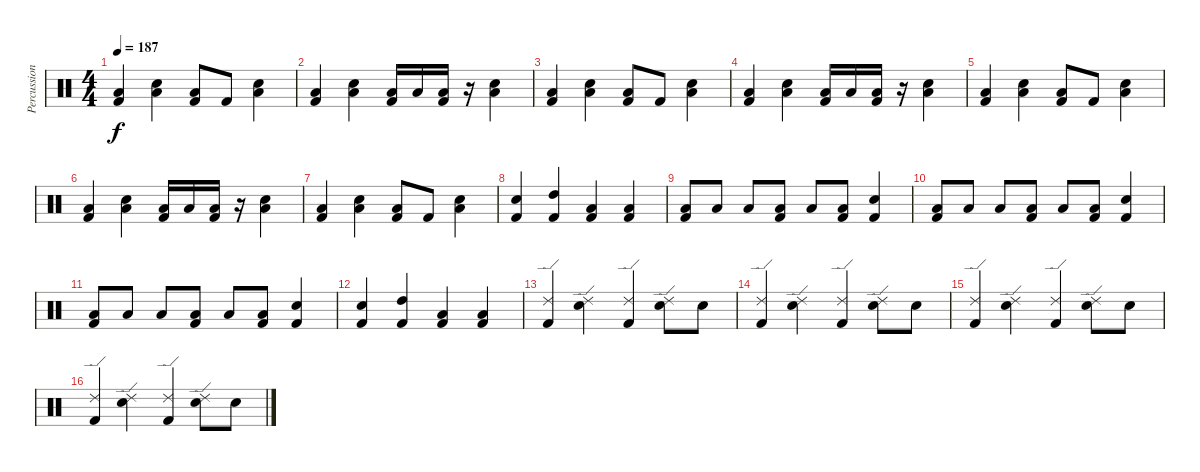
\track ("Percussion" "Percussion") {instrument percussion}
\staff {score}
\articulation defaults
\ts (4 4)
\tempo 187
\clef neutral
\ks c
("Kick (hit) 2" "Low Floor Tom (hit)").4{dy f} ("Snare (hit) 2" "Low Floor Tom (hit)").4 ("Kick (hit) 2" "Low Floor Tom (hit)").8 "Kick (hit) 2".8 ("Snare (hit) 2" "Low Floor Tom (hit)").4 |
("Kick (hit) 2" "Low Floor Tom (hit)").4 ("Snare (hit) 2" "Low Floor Tom (hit)").4 ("Kick (hit) 2" "Low Floor Tom (hit)").16 "Low Floor Tom (hit)".16 ("Kick (hit) 2" "Low Floor Tom (hit)").16 r.16 ("Snare (hit) 2" "Low Floor Tom (hit)").4 |
("Kick (hit) 2" "Low Floor Tom (hit)").4 ("Snare (hit) 2" "Low Floor Tom (hit)").4 ("Kick (hit) 2" "Low Floor Tom (hit)").8 "Kick (hit) 2".8 ("Snare (hit) 2" "Low Floor Tom (hit)").4 |
("Kick (hit) 2" "Low Floor Tom (hit)").4 ("Snare (hit) 2" "Low Floor Tom (hit)").4 ("Kick (hit) 2" "Low Floor Tom (hit)").16 "Low Floor Tom (hit)".16 ("Kick (hit) 2" "Low Floor Tom (hit)").16 r.16 ("Snare (hit) 2" "Low Floor Tom (hit)").4 |
("Kick (hit) 2" "Low Floor Tom (hit)").4 ("Snare (hit) 2" "Low Floor Tom (hit)").4 ("Kick (hit) 2" "Low Floor Tom (hit)").8 "Kick (hit) 2".8 ("Snare (hit) 2" "Low Floor Tom (hit)").4 |
("Kick (hit) 2" "Low Floor Tom (hit)").4 ("Snare (hit) 2" "Low Floor Tom (hit)").4 ("Kick (hit) 2" "Low Floor Tom (hit)").16 "Low Floor Tom (hit)".16 ("Kick (hit) 2" "Low Floor Tom (hit)").16 r.16 ("Snare (hit) 2" "Low Floor Tom (hit)").4 |
("Kick (hit) 2" "Low Floor Tom (hit)").4 ("Snare (hit) 2" "Low Floor Tom (hit)").4 ("Kick (hit) 2" "Low Floor Tom (hit)").8 "Kick (hit) 2".8 ("Snare (hit) 2" "Low Floor Tom (hit)").4 |
("Snare (hit) 2" "Kick (hit) 2").4 ("High Tom (hit)" "Kick (hit) 2").4 ("Low Tom (hit)" "Kick (hit) 2").4 ("Low Floor Tom (hit)" "Kick (hit) 2").4 |
("Kick (hit) 2" "Low Floor Tom (hit)").8 "Low Floor Tom (hit)".8 "Low Floor Tom (hit)".8 ("Kick (hit) 2" "Low Floor Tom (hit)").8 "Low Floor Tom (hit)".8 ("Kick (hit) 2" "Low Floor Tom (hit)").8 ("Kick (hit) 2" "Snare (hit) 2").4 |
("Kick (hit) 2" "Low Floor Tom (hit)").8 "Low Floor Tom (hit)".8 "Low Floor Tom (hit)".8 ("Kick (hit) 2" "Low Floor Tom (hit)").8 "Low Floor Tom (hit)".8 ("Kick (hit) 2" "Low Floor Tom (hit)").8 ("Kick (hit) 2" "Snare (hit) 2").4 |
("Kick (hit) 2" "Low Floor Tom (hit)").8 "Low Floor Tom (hit)".8 "Low Floor Tom (hit)".8 ("Kick (hit) 2" "Low Floor Tom (hit)").8 "Low Floor Tom (hit)".8 ("Kick (hit) 2" "Low Floor Tom (hit)").8 ("Kick (hit) 2" "Snare (hit) 2").4 |
("Snare (hit) 2" "Kick (hit) 2").4 ("High Tom (hit)" "Kick (hit) 2").4 ("Low Tom (hit)" "Kick (hit) 2").4 ("Low Floor Tom (hit)" "Kick (hit) 2").4 |
("Kick (hit) 2" "Ride (edge) 2").4 ("Snare (hit) 2" "Ride (edge) 2").4 ("Kick (hit) 2" "Ride (edge) 2").4 ("Snare (hit) 2" "Ride (edge) 2").8 "Snare (hit) 2".8 |
("Kick (hit) 2" "Ride (edge) 2").4 ("Snare (hit) 2" "Ride (edge) 2").4 ("Kick (hit) 2" "Ride (edge) 2").4 ("Snare (hit) 2" "Ride (edge) 2").8 "Snare (hit) 2".8 |
("Kick (hit) 2" "Ride (edge) 2").4 ("Snare (hit) 2" "Ride (edge) 2").4 ("Kick (hit) 2" "Ride (edge) 2").4 ("Snare (hit) 2" "Ride (edge) 2").8 "Snare (hit) 2".8 |
("Kick (hit) 2" "Ride (edge) 2").4 ("Snare (hit) 2" "Ride (edge) 2").4 ("Kick (hit) 2" "Ride (edge) 2").4 ("Snare (hit) 2" "Ride (edge) 2").8 "Snare (hit) 2".8
